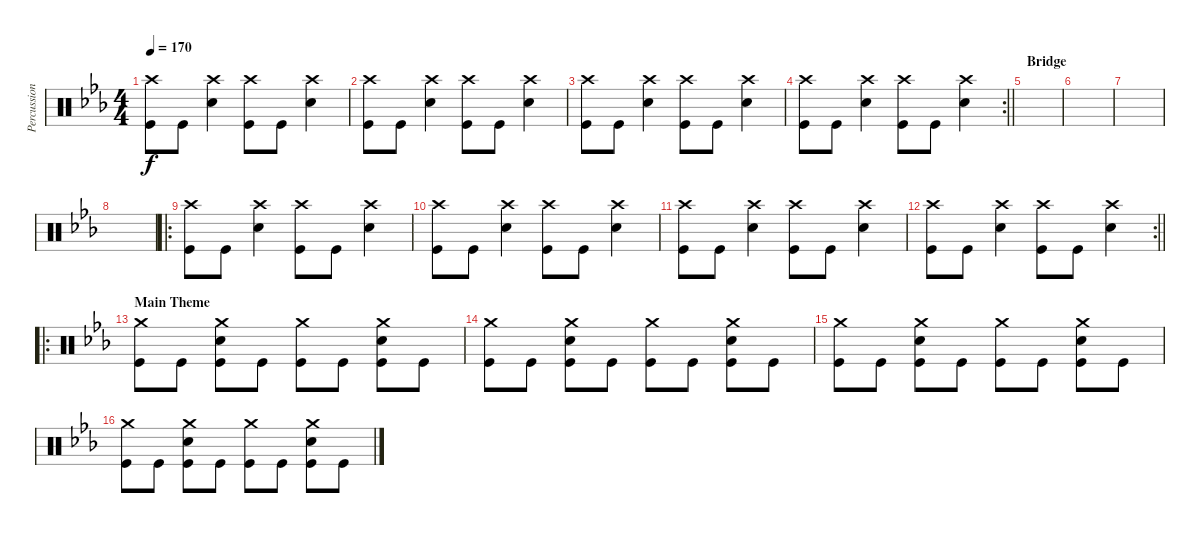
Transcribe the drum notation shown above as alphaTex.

\track ("Percussion" "Percussion") {instrument percussion}
\staff {score}
\articulation defaults
\ts (4 4)
\tempo 170
\clef neutral
\ks cminor
("Crash high (hit)" "Kick (hit)").8{dy f} "Kick (hit)".8 ("Crash high (hit)" "Snare (hit) 2").4 ("Crash high (hit)" "Kick (hit)").8 "Kick (hit)".8 ("Crash high (hit)" "Snare (hit) 2").4 |
("Crash high (hit)" "Kick (hit)").8 "Kick (hit)".8 ("Crash high (hit)" "Snare (hit) 2").4 ("Crash high (hit)" "Kick (hit)").8 "Kick (hit)".8 ("Crash high (hit)" "Snare (hit) 2").4 |
("Crash high (hit)" "Kick (hit)").8 "Kick (hit)".8 ("Crash high (hit)" "Snare (hit) 2").4 ("Crash high (hit)" "Kick (hit)").8 "Kick (hit)".8 ("Crash high (hit)" "Snare (hit) 2").4 |
\rc 2
\barLineRight lightlight
("Crash high (hit)" "Kick (hit)").8 "Kick (hit)".8 ("Crash high (hit)" "Snare (hit) 2").4 ("Crash high (hit)" "Kick (hit)").8 "Kick (hit)".8 ("Crash high (hit)" "Snare (hit) 2").4 |
\section ("" "Bridge")
|
|
|
|
\ro
("Crash high (hit)" "Kick (hit)").8 "Kick (hit)".8 ("Crash high (hit)" "Snare (hit) 2").4 ("Crash high (hit)" "Kick (hit)").8 "Kick (hit)".8 ("Crash high (hit)" "Snare (hit) 2").4 |
("Crash high (hit)" "Kick (hit)").8 "Kick (hit)".8 ("Crash high (hit)" "Snare (hit) 2").4 ("Crash high (hit)" "Kick (hit)").8 "Kick (hit)".8 ("Crash high (hit)" "Snare (hit) 2").4 |
("Crash high (hit)" "Kick (hit)").8 "Kick (hit)".8 ("Crash high (hit)" "Snare (hit) 2").4 ("Crash high (hit)" "Kick (hit)").8 "Kick (hit)".8 ("Crash high (hit)" "Snare (hit) 2").4 |
\rc 2
\barLineRight lightlight
("Crash high (hit)" "Kick (hit)").8 "Kick (hit)".8 ("Crash high (hit)" "Snare (hit) 2").4 ("Crash high (hit)" "Kick (hit)").8 "Kick (hit)".8 ("Crash high (hit)" "Snare (hit) 2").4 |
\ro
\section ("" "Main Theme")
("Crash medium (hit)" "Kick (hit)").8 "Kick (hit)".8 ("Crash medium (hit)" "Snare (hit) 2" "Kick (hit)").8 "Kick (hit)".8 ("Crash medium (hit)" "Kick (hit)").8 "Kick (hit)".8 ("Crash medium (hit)" "Snare (hit) 2" "Kick (hit)").8 "Kick (hit)".8 |
("Crash medium (hit)" "Kick (hit)").8 "Kick (hit)".8 ("Crash medium (hit)" "Snare (hit) 2" "Kick (hit)").8 "Kick (hit)".8 ("Crash medium (hit)" "Kick (hit)").8 "Kick (hit)".8 ("Crash medium (hit)" "Snare (hit) 2" "Kick (hit)").8 "Kick (hit)".8 |
("Crash medium (hit)" "Kick (hit)").8 "Kick (hit)".8 ("Crash medium (hit)" "Snare (hit) 2" "Kick (hit)").8 "Kick (hit)".8 ("Crash medium (hit)" "Kick (hit)").8 "Kick (hit)".8 ("Crash medium (hit)" "Snare (hit) 2" "Kick (hit)").8 "Kick (hit)".8 |
("Crash medium (hit)" "Kick (hit)").8 "Kick (hit)".8 ("Crash medium (hit)" "Snare (hit) 2" "Kick (hit)").8 "Kick (hit)".8 ("Crash medium (hit)" "Kick (hit)").8 "Kick (hit)".8 ("Crash medium (hit)" "Snare (hit) 2" "Kick (hit)").8 "Kick (hit)".8
